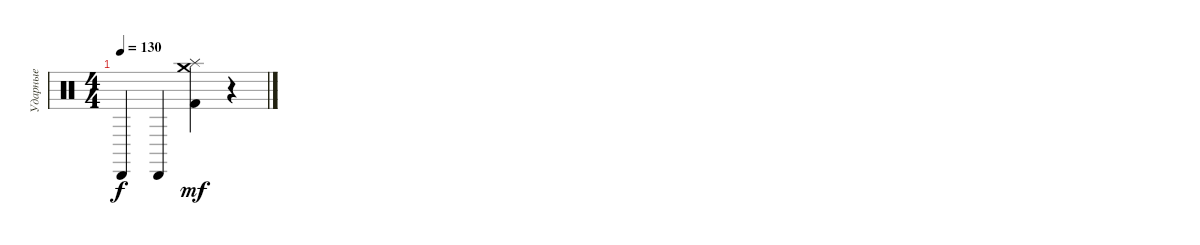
\track ("Ударные" "Ударные") {instrument percussion}
\staff {score}
\articulation defaults
\ts (4 4)
\tempo 130
\clef neutral
\ks c "Cabasa (hit)".4{dy f} "Cabasa (hit)".4
("Crash medium (hit)" "Splash (hit)" "Kick (hit) 2").4{dy mf} r.4
